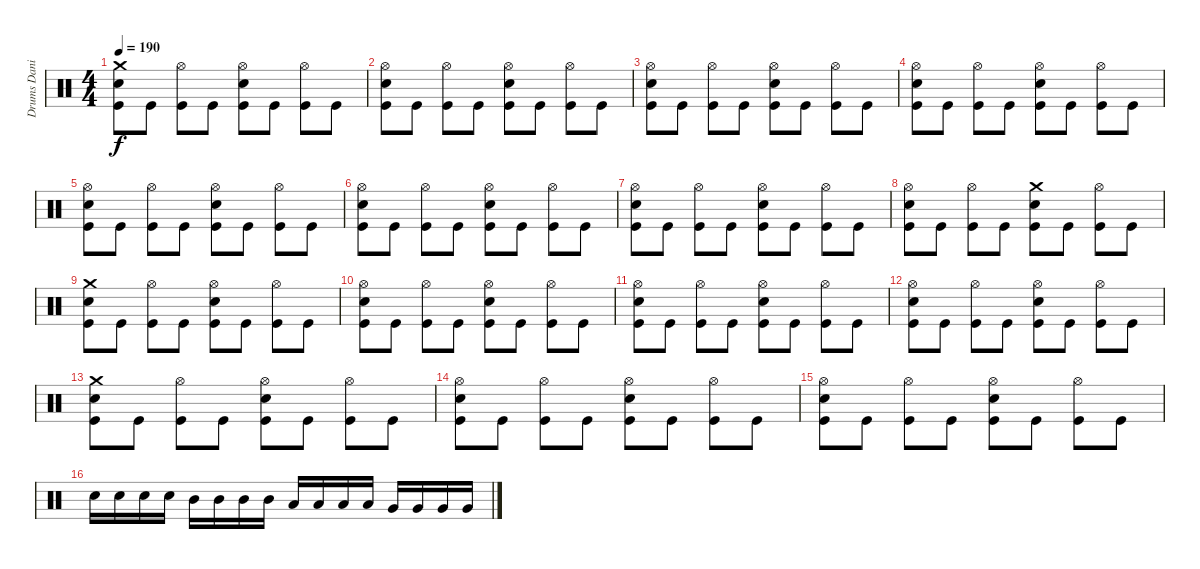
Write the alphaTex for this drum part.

\track ("Drums Daniel" "Drums Dani") {instrument percussion}
\staff {score}
\articulation defaults
\ts (4 4)
\tempo 190
\clef neutral
\ks c
("Kick (hit)" "Electric Snare (hit)" "Crash medium (hit)").8{dy f} "Kick (hit)".8 ("Kick (hit)" "Hi-Hat (open)").8 "Kick (hit)".8 ("Kick (hit)" "Electric Snare (hit)" "Hi-Hat (open)").8 "Kick (hit)".8 ("Kick (hit)" "Hi-Hat (open)").8 "Kick (hit)".8 |
("Kick (hit)" "Electric Snare (hit)" "Hi-Hat (open)").8 "Kick (hit)".8 ("Kick (hit)" "Hi-Hat (open)").8 "Kick (hit)".8 ("Kick (hit)" "Electric Snare (hit)" "Hi-Hat (open)").8 "Kick (hit)".8 ("Kick (hit)" "Hi-Hat (open)").8 "Kick (hit)".8 |
("Kick (hit)" "Electric Snare (hit)" "Hi-Hat (open)").8 "Kick (hit)".8 ("Kick (hit)" "Hi-Hat (open)").8 "Kick (hit)".8 ("Kick (hit)" "Electric Snare (hit)" "Hi-Hat (open)").8 "Kick (hit)".8 ("Kick (hit)" "Hi-Hat (open)").8 "Kick (hit)".8 |
("Kick (hit)" "Electric Snare (hit)" "Hi-Hat (open)").8 "Kick (hit)".8 ("Kick (hit)" "Hi-Hat (open)").8 "Kick (hit)".8 ("Kick (hit)" "Electric Snare (hit)" "Hi-Hat (open)").8 "Kick (hit)".8 ("Kick (hit)" "Hi-Hat (open)").8 "Kick (hit)".8 |
("Kick (hit)" "Electric Snare (hit)" "Hi-Hat (open)").8 "Kick (hit)".8 ("Kick (hit)" "Hi-Hat (open)").8 "Kick (hit)".8 ("Kick (hit)" "Electric Snare (hit)" "Hi-Hat (open)").8 "Kick (hit)".8 ("Kick (hit)" "Hi-Hat (open)").8 "Kick (hit)".8 |
("Kick (hit)" "Electric Snare (hit)" "Hi-Hat (open)").8 "Kick (hit)".8 ("Kick (hit)" "Hi-Hat (open)").8 "Kick (hit)".8 ("Kick (hit)" "Electric Snare (hit)" "Hi-Hat (open)").8 "Kick (hit)".8 ("Kick (hit)" "Hi-Hat (open)").8 "Kick (hit)".8 |
("Kick (hit)" "Electric Snare (hit)" "Hi-Hat (open)").8 "Kick (hit)".8 ("Kick (hit)" "Hi-Hat (open)").8 "Kick (hit)".8 ("Kick (hit)" "Electric Snare (hit)" "Hi-Hat (open)").8 "Kick (hit)".8 ("Kick (hit)" "Hi-Hat (open)").8 "Kick (hit)".8 |
("Kick (hit)" "Electric Snare (hit)" "Hi-Hat (open)").8 "Kick (hit)".8 ("Kick (hit)" "Hi-Hat (open)").8 "Kick (hit)".8 ("Kick (hit)" "Electric Snare (hit)" "Crash medium (hit)").8 "Kick (hit)".8 ("Kick (hit)" "Hi-Hat (open)").8 "Kick (hit)".8 |
("Kick (hit)" "Electric Snare (hit)" "Crash medium (hit)").8 "Kick (hit)".8 ("Kick (hit)" "Hi-Hat (open)").8 "Kick (hit)".8 ("Kick (hit)" "Electric Snare (hit)" "Hi-Hat (open)").8 "Kick (hit)".8 ("Kick (hit)" "Hi-Hat (open)").8 "Kick (hit)".8 |
("Kick (hit)" "Electric Snare (hit)" "Hi-Hat (open)").8 "Kick (hit)".8 ("Kick (hit)" "Hi-Hat (open)").8 "Kick (hit)".8 ("Kick (hit)" "Electric Snare (hit)" "Hi-Hat (open)").8 "Kick (hit)".8 ("Kick (hit)" "Hi-Hat (open)").8 "Kick (hit)".8 |
("Kick (hit)" "Electric Snare (hit)" "Hi-Hat (open)").8 "Kick (hit)".8 ("Kick (hit)" "Hi-Hat (open)").8 "Kick (hit)".8 ("Kick (hit)" "Electric Snare (hit)" "Hi-Hat (open)").8 "Kick (hit)".8 ("Kick (hit)" "Hi-Hat (open)").8 "Kick (hit)".8 |
("Kick (hit)" "Electric Snare (hit)" "Hi-Hat (open)").8 "Kick (hit)".8 ("Kick (hit)" "Hi-Hat (open)").8 "Kick (hit)".8 ("Kick (hit)" "Electric Snare (hit)" "Hi-Hat (open)").8 "Kick (hit)".8 ("Kick (hit)" "Hi-Hat (open)").8 "Kick (hit)".8 |
("Kick (hit)" "Electric Snare (hit)" "Crash medium (hit)").8 "Kick (hit)".8 ("Kick (hit)" "Hi-Hat (open)").8 "Kick (hit)".8 ("Kick (hit)" "Electric Snare (hit)" "Hi-Hat (open)").8 "Kick (hit)".8 ("Kick (hit)" "Hi-Hat (open)").8 "Kick (hit)".8 |
("Kick (hit)" "Electric Snare (hit)" "Hi-Hat (open)").8 "Kick (hit)".8 ("Kick (hit)" "Hi-Hat (open)").8 "Kick (hit)".8 ("Kick (hit)" "Electric Snare (hit)" "Hi-Hat (open)").8 "Kick (hit)".8 ("Kick (hit)" "Hi-Hat (open)").8 "Kick (hit)".8 |
("Kick (hit)" "Electric Snare (hit)" "Hi-Hat (open)").8 "Kick (hit)".8 ("Kick (hit)" "Hi-Hat (open)").8 "Kick (hit)".8 ("Kick (hit)" "Electric Snare (hit)" "Hi-Hat (open)").8 "Kick (hit)".8 ("Kick (hit)" "Hi-Hat (open)").8 "Kick (hit)".8 |
"Electric Snare (hit)".16 "Electric Snare (hit)".16 "Electric Snare (hit)".16 "Electric Snare (hit)".16 "Mid Tom (hit)".16 "Mid Tom (hit)".16 "Mid Tom (hit)".16 "Mid Tom (hit)".16 "Low Tom (hit)".16 "Low Tom (hit)".16 "Low Tom (hit)".16 "Low Tom (hit)".16 "Very Low Tom (hit)".16 "Very Low Tom (hit)".16 "Very Low Tom (hit)".16 "Very Low Tom (hit)".16
